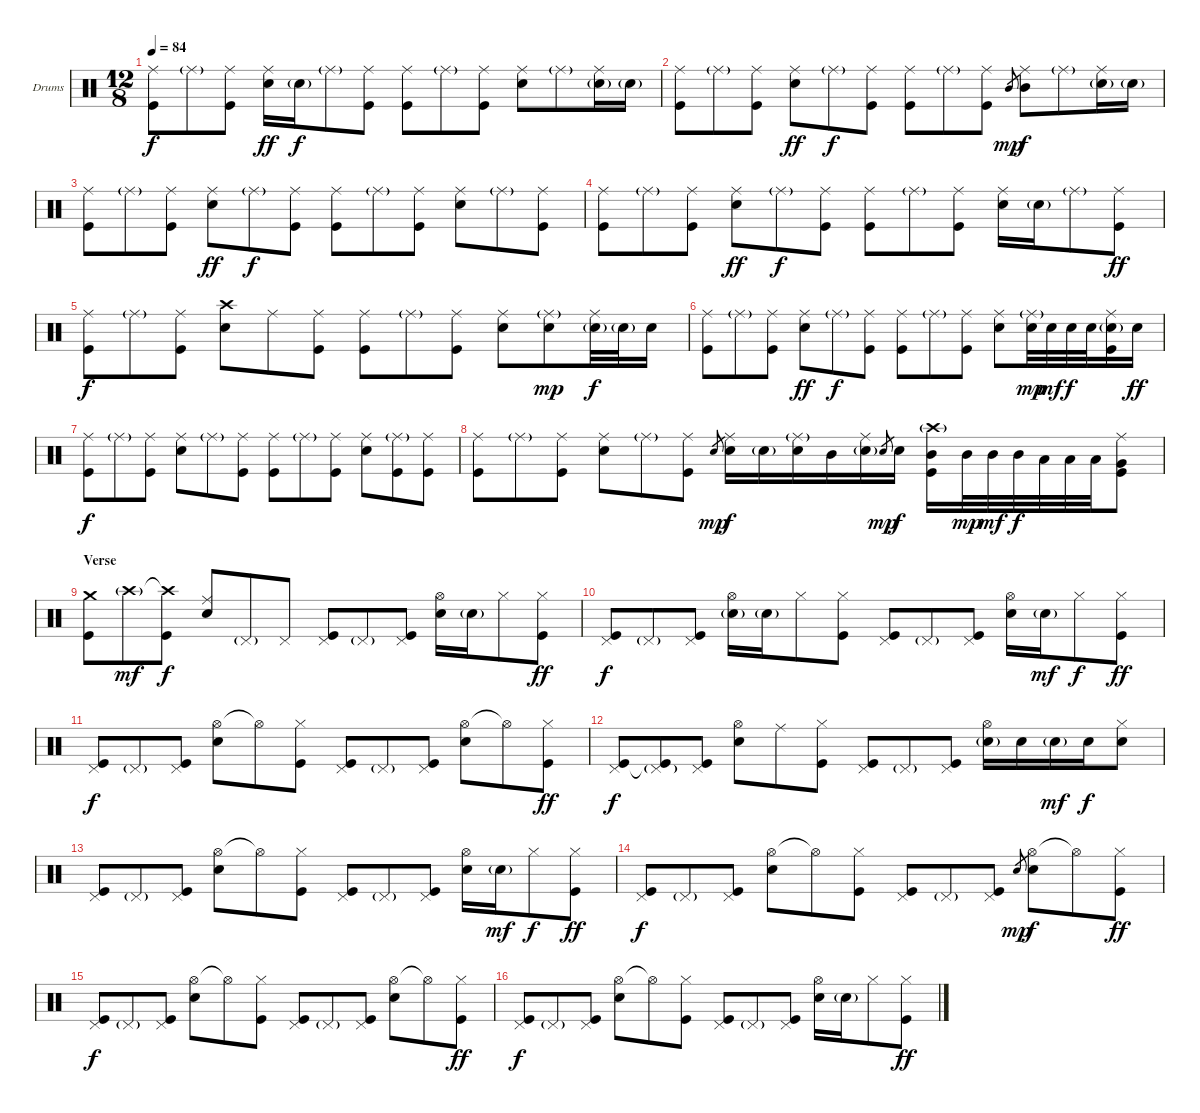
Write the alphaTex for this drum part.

\bracketExtendMode groupsimilarinstruments
\firstSystemTrackNameOrientation horizontal
\otherSystemsTrackNameOrientation horizontal
\track ("Drumkit" "Drums") {instrument percussion}
\staff {score}
\articulation defaults
\ts (12 8)
\tempo 84
\clef neutral
\ks c
("Ride (middle)" "Kick (hit)").8{dy f} "Ride (middle)"{g}.8 ("Ride (middle)" "Kick (hit)").8 ("Ride (middle)" "Snare (hit) 2").16{dy ff} "Snare (hit) 2"{g}.16{dy f} "Ride (middle)"{g}.8 ("Ride (middle)" "Kick (hit)").8 ("Ride (middle)" "Kick (hit)").8 "Ride (middle)"{g}.8 ("Ride (middle)" "Kick (hit)").8 ("Ride (middle)" "Snare (hit) 2").8 "Ride (middle)"{g}.8 ("Ride (middle)" "Snare (hit) 2"{g}).16 "Snare (hit) 2"{g}.16 |
("Ride (middle)" "Kick (hit)").8 "Ride (middle)"{g}.8 ("Ride (middle)" "Kick (hit)").8 ("Ride (middle)" "Snare (hit) 2").8{dy ff} "Ride (middle)"{g}.8{dy f} ("Ride (middle)" "Kick (hit)").8 ("Ride (middle)" "Kick (hit)").8 "Ride (middle)"{g}.8 ("Ride (middle)" "Kick (hit)").8 "Mid Tom (hit)".8{gr dy mp} ("Ride (middle)" "Mid Tom (hit)").8{dy f} "Ride (middle)"{g}.8 ("Ride (middle)" "Snare (hit) 2"{g}).16 "Snare (hit) 2"{g}.16 |
("Ride (middle)" "Kick (hit)").8 "Ride (middle)"{g}.8 ("Ride (middle)" "Kick (hit)").8 ("Ride (middle)" "Snare (hit) 2").8{dy ff} "Ride (middle)"{g}.8{dy f} ("Ride (middle)" "Kick (hit)").8 ("Ride (middle)" "Kick (hit)").8 "Ride (middle)"{g}.8 ("Ride (middle)" "Kick (hit)").8 ("Ride (middle)" "Snare (hit) 2").8 "Ride (middle)"{g}.8 ("Ride (middle)" "Kick (hit)").8 |
("Ride (middle)" "Kick (hit)").8 "Ride (middle)"{g}.8 ("Ride (middle)" "Kick (hit)").8 ("Ride (middle)" "Snare (hit) 2").8{dy ff} "Ride (middle)"{g}.8{dy f} ("Ride (middle)" "Kick (hit)").8 ("Ride (middle)" "Kick (hit)").8 "Ride (middle)"{g}.8 ("Ride (middle)" "Kick (hit)").8 ("Ride (middle)" "Snare (hit) 2").16 "Snare (hit) 2"{g}.16 "Ride (middle)"{g}.8 ("Ride (middle)" "Kick (hit)").8{dy ff} |
("Ride (middle)" "Kick (hit)").8{dy f} "Ride (middle)"{g}.8 ("Ride (middle)" "Kick (hit)").8 ("Crash high (hit)" "Snare (hit) 2").8 "Ride (middle)".8 ("Ride (middle)" "Kick (hit)").8 ("Ride (middle)" "Kick (hit)").8 "Ride (middle)"{g}.8 ("Ride (middle)" "Kick (hit)").8 ("Ride (middle)" "Snare (hit) 2").8 ("Ride (middle)"{g} "Snare (hit) 2").8{dy mp} ("Ride (middle)" "Snare (hit) 2"{g}).32{dy f} "Snare (hit) 2"{g}.32 "Snare (hit) 2".16 |
("Ride (middle)" "Kick (hit)").8 "Ride (middle)"{g}.8 ("Ride (middle)" "Kick (hit)").8 ("Ride (middle)" "Snare (hit) 2").8{dy ff} "Ride (middle)"{g}.8{dy f} ("Ride (middle)" "Kick (hit)").8 ("Ride (middle)" "Kick (hit)").8 "Ride (middle)"{g}.8 ("Ride (middle)" "Kick (hit)").8 ("Ride (middle)" "Snare (hit) 2").8 ("Ride (middle)"{g} "Snare (hit) 2").32{dy mp} "Snare (hit) 2".32{dy mf} "Snare (hit) 2".32{dy f} "Snare (hit) 2".32 ("Ride (middle)" "Snare (hit) 2"{g} "Kick (hit)").16 "Snare (hit) 2".16{dy ff} |
("Ride (middle)" "Kick (hit)").8{dy f} "Ride (middle)"{g}.8 ("Ride (middle)" "Kick (hit)").8 ("Ride (middle)" "Snare (hit) 2").8 "Ride (middle)"{g}.8 ("Ride (middle)" "Kick (hit)").8 ("Ride (middle)" "Kick (hit)").8 "Ride (middle)"{g}.8 ("Ride (middle)" "Kick (hit)").8 ("Ride (middle)" "Snare (hit) 2").8 ("Ride (middle)"{g} "Kick (hit)").8 ("Ride (middle)" "Kick (hit)").8 |
("Ride (middle)" "Kick (hit)").8 "Ride (middle)"{g}.8 ("Ride (middle)" "Kick (hit)").8 ("Ride (middle)" "Snare (hit) 2").8 "Ride (middle)"{g}.8 ("Ride (middle)" "Kick (hit)").8 "Snare (hit) 2".8{gr dy mp} ("Ride (middle)" "Snare (hit) 2").16{dy f} "Snare (hit) 2"{g}.16 ("Ride (middle)"{g} "Snare (hit) 2").16 "Mid Tom (hit)".16 ("Ride (middle)" "Snare (hit) 2"{g}).16 "Snare (hit) 2".8{gr dy mp} "Snare (hit) 2".16{dy f} ("Crash high (hit)"{g} "Mid Tom (hit)" "Kick (hit)").16 "Mid Tom (hit)".32{dy mp} "Mid Tom (hit)".32{dy mf} "Mid Tom (hit)".32{dy f} "Low Tom (hit)".32 "Low Tom (hit)".32 "Low Tom (hit)".32 ("Ride (middle)" "Very Low Tom (hit)" "Kick (hit)").8 |
\section ("" "Verse")
("Crash medium (hit)" "Kick (hit)").8 "Crash high (hit)"{g}.8{dy mf} ("Crash high (hit)"{t} "Kick (hit)").8{dy f} ("Ride (middle)" "Snare (hit) 2").8 "Pedal Hi-Hat (hit)"{g}.8 "Pedal Hi-Hat (hit)".8 ("Pedal Hi-Hat (hit)" "Kick (hit)").8 "Pedal Hi-Hat (hit)"{g}.8 ("Pedal Hi-Hat (hit)" "Kick (hit)").8 ("Hi-Hat (open)" "Snare (hit) 2").16 "Snare (hit) 2"{g}.16 "Hi-Hat (closed)".8 ("Hi-Hat (closed)" "Kick (hit)").8{dy ff} |
("Pedal Hi-Hat (hit)" "Kick (hit)").8{dy f} "Pedal Hi-Hat (hit)"{g}.8 ("Pedal Hi-Hat (hit)" "Kick (hit)").8 ("Hi-Hat (open)" "Snare (hit) 2"{g}).16 "Snare (hit) 2"{g}.16 "Hi-Hat (closed)".8 ("Hi-Hat (closed)" "Kick (hit)").8 ("Pedal Hi-Hat (hit)" "Kick (hit)").8 "Pedal Hi-Hat (hit)"{g}.8 ("Pedal Hi-Hat (hit)" "Kick (hit)").8 ("Hi-Hat (open)" "Snare (hit) 2").16 "Snare (hit) 2"{g}.16{dy mf} "Hi-Hat (closed)".8{dy f} ("Hi-Hat (closed)" "Kick (hit)").8{dy ff} |
("Pedal Hi-Hat (hit)" "Kick (hit)").8{dy f} "Pedal Hi-Hat (hit)"{g}.8 ("Pedal Hi-Hat (hit)" "Kick (hit)").8 ("Hi-Hat (open)" "Snare (hit) 2").8 "Hi-Hat (open)"{t}.8 ("Hi-Hat (closed)" "Kick (hit)").8 ("Pedal Hi-Hat (hit)" "Kick (hit)").8 "Pedal Hi-Hat (hit)"{g}.8 ("Pedal Hi-Hat (hit)" "Kick (hit)").8 ("Hi-Hat (open)" "Snare (hit) 2").8 "Hi-Hat (open)"{t}.8 ("Hi-Hat (closed)" "Kick (hit)").8{dy ff} |
("Pedal Hi-Hat (hit)" "Kick (hit)").8{dy f} ("Pedal Hi-Hat (hit)"{g} "Kick (hit)"{t}).8 ("Pedal Hi-Hat (hit)" "Kick (hit)").8 ("Hi-Hat (open)" "Snare (hit) 2").8 "Ride (middle)".8 ("Hi-Hat (closed)" "Kick (hit)").8 ("Pedal Hi-Hat (hit)" "Kick (hit)").8 "Pedal Hi-Hat (hit)"{g}.8 ("Pedal Hi-Hat (hit)" "Kick (hit)").8 ("Hi-Hat (open)" "Snare (hit) 2"{g}).16 "Snare (hit) 2".16 "Snare (hit) 2"{g}.16{dy mf} "Snare (hit) 2".16{dy f} ("Hi-Hat (closed)" "Snare (hit) 2").8 |
("Pedal Hi-Hat (hit)" "Kick (hit)").8 "Pedal Hi-Hat (hit)"{g}.8 ("Pedal Hi-Hat (hit)" "Kick (hit)").8 ("Hi-Hat (open)" "Snare (hit) 2").8 "Hi-Hat (open)"{t}.8 ("Hi-Hat (closed)" "Kick (hit)").8 ("Pedal Hi-Hat (hit)" "Kick (hit)").8 "Pedal Hi-Hat (hit)"{g}.8 ("Pedal Hi-Hat (hit)" "Kick (hit)").8 ("Hi-Hat (open)" "Snare (hit) 2").16 "Snare (hit) 2"{g}.16{dy mf} "Hi-Hat (closed)".8{dy f} ("Hi-Hat (closed)" "Kick (hit)").8{dy ff} |
("Pedal Hi-Hat (hit)" "Kick (hit)").8{dy f} "Pedal Hi-Hat (hit)"{g}.8 ("Pedal Hi-Hat (hit)" "Kick (hit)").8 ("Hi-Hat (open)" "Snare (hit) 2").8 "Hi-Hat (open)"{t}.8 ("Hi-Hat (closed)" "Kick (hit)").8 ("Pedal Hi-Hat (hit)" "Kick (hit)").8 "Pedal Hi-Hat (hit)"{g}.8 ("Pedal Hi-Hat (hit)" "Kick (hit)").8 "Snare (hit) 2".8{gr dy mp} ("Hi-Hat (open)" "Snare (hit) 2").8{dy f} "Hi-Hat (open)"{t}.8 ("Hi-Hat (closed)" "Kick (hit)").8{dy ff} |
("Pedal Hi-Hat (hit)" "Kick (hit)").8{dy f} "Pedal Hi-Hat (hit)"{g}.8 ("Pedal Hi-Hat (hit)" "Kick (hit)").8 ("Hi-Hat (open)" "Snare (hit) 2").8 "Hi-Hat (open)"{t}.8 ("Hi-Hat (closed)" "Kick (hit)").8 ("Pedal Hi-Hat (hit)" "Kick (hit)").8 "Pedal Hi-Hat (hit)"{g}.8 ("Pedal Hi-Hat (hit)" "Kick (hit)").8 ("Hi-Hat (open)" "Snare (hit) 2").8 "Hi-Hat (open)"{t}.8 ("Hi-Hat (closed)" "Kick (hit)").8{dy ff} |
("Pedal Hi-Hat (hit)" "Kick (hit)").8{dy f} "Pedal Hi-Hat (hit)"{g}.8 ("Pedal Hi-Hat (hit)" "Kick (hit)").8 ("Hi-Hat (open)" "Snare (hit) 2").8 "Hi-Hat (open)"{t}.8 ("Hi-Hat (closed)" "Kick (hit)").8 ("Pedal Hi-Hat (hit)" "Kick (hit)").8 "Pedal Hi-Hat (hit)"{g}.8 ("Pedal Hi-Hat (hit)" "Kick (hit)").8 ("Hi-Hat (open)" "Snare (hit) 2").16 "Snare (hit) 2"{g}.16 "Hi-Hat (closed)".8 ("Hi-Hat (closed)" "Kick (hit)").8{dy ff}
